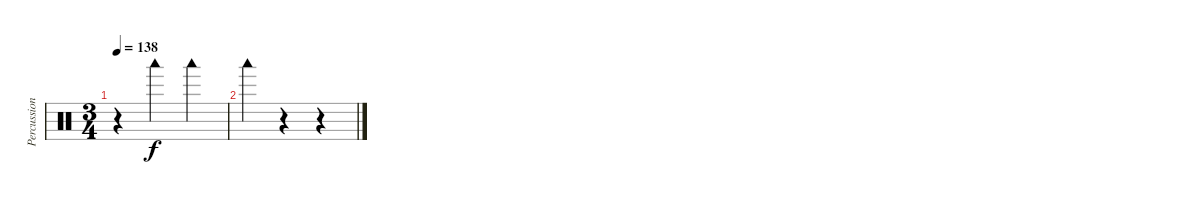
\track ("Percussions" "Percussion") {instrument percussion}
\staff {score}
\articulation defaults
\ts (3 4)
\tempo 138
\clef neutral
\ks c
r.4{dy f} "Woodblock low (hit)".4 "Woodblock low (hit)".4 |
"Woodblock low (hit)".4 r.4 r.4
